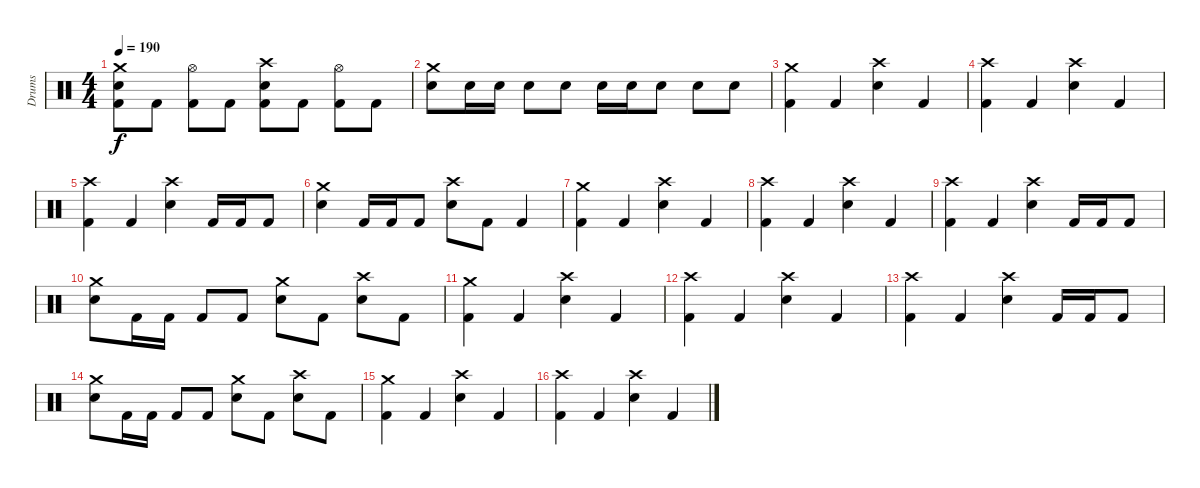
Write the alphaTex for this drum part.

\track ("Drums" "Drums") {instrument percussion}
\staff {score}
\articulation defaults
\ts (4 4)
\tempo 190
\clef neutral
\ks c
("Crash medium (hit)" "Electric Snare (hit)" "Kick (hit) 2").8{dy f} "Kick (hit) 2".8 ("Hi-Hat (open)" "Kick (hit) 2").8 "Kick (hit) 2".8 ("Crash high (hit)" "Electric Snare (hit)" "Kick (hit) 2").8 "Kick (hit) 2".8 ("Hi-Hat (open)" "Kick (hit) 2").8 "Kick (hit) 2".8 |
("Crash medium (hit)" "Electric Snare (hit)").8 "Electric Snare (hit)".16 "Electric Snare (hit)".16 "Electric Snare (hit)".8 "Electric Snare (hit)".8 "Electric Snare (hit)".16 "Electric Snare (hit)".16 "Electric Snare (hit)".8 "Electric Snare (hit)".8 "Electric Snare (hit)".8 |
("Crash medium (hit)" "Kick (hit) 2").4 "Kick (hit) 2".4 ("Crash high (hit)" "Electric Snare (hit)").4 "Kick (hit) 2".4 |
("Crash high (hit)" "Kick (hit) 2").4 "Kick (hit) 2".4 ("Crash high (hit)" "Electric Snare (hit)").4 "Kick (hit) 2".4 |
("Crash high (hit)" "Kick (hit) 2").4 "Kick (hit) 2".4 ("Crash high (hit)" "Electric Snare (hit)").4 "Kick (hit) 2".16 "Kick (hit) 2".16 "Kick (hit) 2".8 |
("Crash medium (hit)" "Electric Snare (hit)").4 "Kick (hit) 2".16 "Kick (hit) 2".16 "Kick (hit) 2".8 ("Crash high (hit)" "Electric Snare (hit)").8 "Kick (hit) 2".8 "Kick (hit) 2".4 |
("Crash medium (hit)" "Kick (hit) 2").4 "Kick (hit) 2".4 ("Crash high (hit)" "Electric Snare (hit)").4 "Kick (hit) 2".4 |
("Crash high (hit)" "Kick (hit) 2").4 "Kick (hit) 2".4 ("Crash high (hit)" "Electric Snare (hit)").4 "Kick (hit) 2".4 |
("Crash high (hit)" "Kick (hit) 2").4 "Kick (hit) 2".4 ("Crash high (hit)" "Electric Snare (hit)").4 "Kick (hit) 2".16 "Kick (hit) 2".16 "Kick (hit) 2".8 |
("Crash medium (hit)" "Electric Snare (hit)").8 "Kick (hit) 2".16 "Kick (hit) 2".16 "Kick (hit) 2".8 "Kick (hit) 2".8 ("Crash medium (hit)" "Electric Snare (hit)").8 "Kick (hit) 2".8 ("Crash high (hit)" "Electric Snare (hit)").8 "Kick (hit) 2".8 |
("Crash medium (hit)" "Kick (hit) 2").4 "Kick (hit) 2".4 ("Crash high (hit)" "Electric Snare (hit)").4 "Kick (hit) 2".4 |
("Crash high (hit)" "Kick (hit) 2").4 "Kick (hit) 2".4 ("Crash high (hit)" "Electric Snare (hit)").4 "Kick (hit) 2".4 |
("Crash high (hit)" "Kick (hit) 2").4 "Kick (hit) 2".4 ("Crash high (hit)" "Electric Snare (hit)").4 "Kick (hit) 2".16 "Kick (hit) 2".16 "Kick (hit) 2".8 |
("Crash medium (hit)" "Electric Snare (hit)").8 "Kick (hit) 2".16 "Kick (hit) 2".16 "Kick (hit) 2".8 "Kick (hit) 2".8 ("Crash medium (hit)" "Electric Snare (hit)").8 "Kick (hit) 2".8 ("Crash high (hit)" "Electric Snare (hit)").8 "Kick (hit) 2".8 |
("Crash medium (hit)" "Kick (hit) 2").4 "Kick (hit) 2".4 ("Crash high (hit)" "Electric Snare (hit)").4 "Kick (hit) 2".4 |
("Crash high (hit)" "Kick (hit) 2").4 "Kick (hit) 2".4 ("Crash high (hit)" "Electric Snare (hit)").4 "Kick (hit) 2".4
